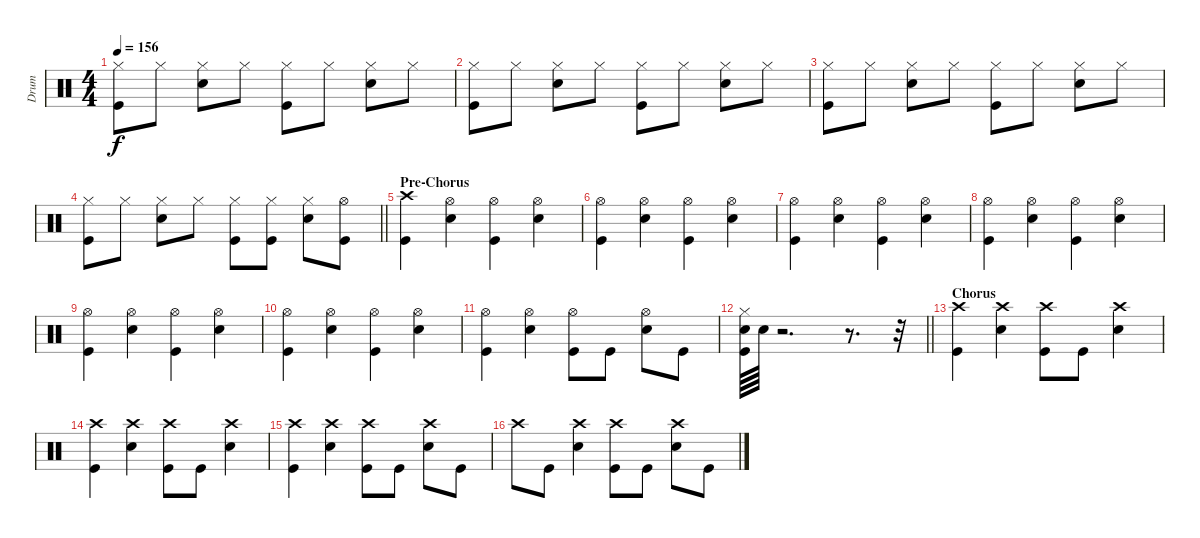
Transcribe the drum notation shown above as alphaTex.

\track ("Drum" "Drum") {instrument percussion}
\staff {score}
\articulation defaults
\ts (4 4)
\tempo 156
\clef neutral
\ks c
("Hi-Hat (closed)" "Kick (hit)").8{dy f} "Hi-Hat (closed)".8 ("Hi-Hat (closed)" "Snare (hit) 2").8 "Hi-Hat (closed)".8 ("Hi-Hat (closed)" "Kick (hit)").8 "Hi-Hat (closed)".8 ("Hi-Hat (closed)" "Snare (hit) 2").8 "Hi-Hat (closed)".8 |
("Hi-Hat (closed)" "Kick (hit)").8 "Hi-Hat (closed)".8 ("Hi-Hat (closed)" "Snare (hit) 2").8 "Hi-Hat (closed)".8 ("Hi-Hat (closed)" "Kick (hit)").8 "Hi-Hat (closed)".8 ("Hi-Hat (closed)" "Snare (hit) 2").8 "Hi-Hat (closed)".8 |
("Hi-Hat (closed)" "Kick (hit)").8 "Hi-Hat (closed)".8 ("Hi-Hat (closed)" "Snare (hit) 2").8 "Hi-Hat (closed)".8 ("Hi-Hat (closed)" "Kick (hit)").8 "Hi-Hat (closed)".8 ("Hi-Hat (closed)" "Snare (hit) 2").8 "Hi-Hat (closed)".8 |
\barLineRight lightlight
("Hi-Hat (closed)" "Kick (hit)").8 "Hi-Hat (closed)".8 ("Hi-Hat (closed)" "Snare (hit) 2").8 "Hi-Hat (closed)".8 ("Hi-Hat (closed)" "Kick (hit)").8 ("Hi-Hat (closed)" "Kick (hit)").8 ("Hi-Hat (closed)" "Snare (hit) 2").8 ("Hi-Hat (open)" "Kick (hit)").8 |
\section ("" "Pre-Chorus")
("Crash high (hit)" "Kick (hit)").4 ("Hi-Hat (open)" "Snare (hit) 2").4 ("Hi-Hat (open)" "Kick (hit)").4 ("Hi-Hat (open)" "Snare (hit) 2").4 |
("Hi-Hat (open)" "Kick (hit)").4 ("Hi-Hat (open)" "Snare (hit) 2").4 ("Hi-Hat (open)" "Kick (hit)").4 ("Hi-Hat (open)" "Snare (hit) 2").4 |
("Hi-Hat (open)" "Kick (hit)").4 ("Hi-Hat (open)" "Snare (hit) 2").4 ("Hi-Hat (open)" "Kick (hit)").4 ("Hi-Hat (open)" "Snare (hit) 2").4 |
("Hi-Hat (open)" "Kick (hit)").4 ("Hi-Hat (open)" "Snare (hit) 2").4 ("Hi-Hat (open)" "Kick (hit)").4 ("Hi-Hat (open)" "Snare (hit) 2").4 |
("Hi-Hat (open)" "Kick (hit)").4 ("Hi-Hat (open)" "Snare (hit) 2").4 ("Hi-Hat (open)" "Kick (hit)").4 ("Hi-Hat (open)" "Snare (hit) 2").4 |
("Hi-Hat (open)" "Kick (hit)").4 ("Hi-Hat (open)" "Snare (hit) 2").4 ("Hi-Hat (open)" "Kick (hit)").4 ("Hi-Hat (open)" "Snare (hit) 2").4 |
("Hi-Hat (open)" "Kick (hit)").4 ("Hi-Hat (open)" "Snare (hit) 2").4 ("Hi-Hat (open)" "Kick (hit)").8 "Kick (hit)".8 ("Hi-Hat (open)" "Snare (hit) 2").8 "Kick (hit)".8 |
\barLineRight lightlight
("Hi-Hat (closed)" "Snare (hit) 2" "Kick (hit)").64 "Snare (hit) 2".64 r.2{d} r.8{d} r.32 |
\section ("" "Chorus")
("Crash high (hit)" "Kick (hit)").4 ("Crash high (hit)" "Snare (hit) 2").4 ("Crash high (hit)" "Kick (hit)").8 "Kick (hit)".8 ("Crash high (hit)" "Snare (hit) 2").4 |
("Crash high (hit)" "Kick (hit)").4 ("Crash high (hit)" "Snare (hit) 2").4 ("Crash high (hit)" "Kick (hit)").8 "Kick (hit)".8 ("Crash high (hit)" "Snare (hit) 2").4 |
("Crash high (hit)" "Kick (hit)").4 ("Crash high (hit)" "Snare (hit) 2").4 ("Crash high (hit)" "Kick (hit)").8 "Kick (hit)".8 ("Crash high (hit)" "Snare (hit) 2").8 "Kick (hit)".8 |
"Crash high (hit)".8 "Kick (hit)".8 ("Crash high (hit)" "Snare (hit) 2").4 ("Crash high (hit)" "Kick (hit)").8 "Kick (hit)".8 ("Crash high (hit)" "Snare (hit) 2").8 "Kick (hit)".8
